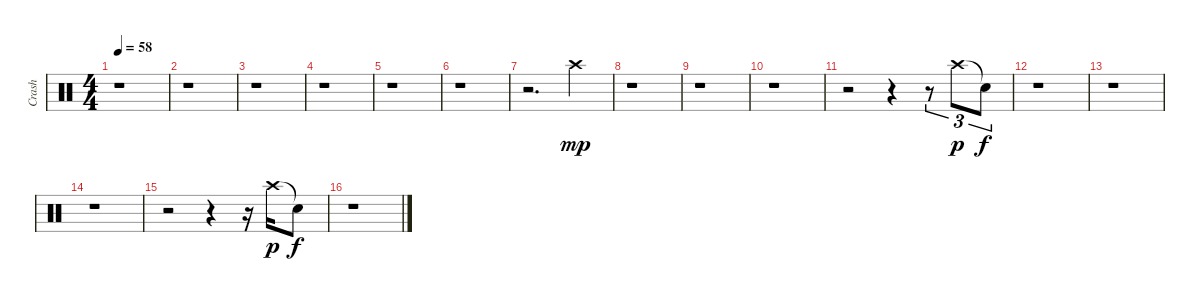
\track ("Crash" "Crash") {instrument percussion}
\staff {score}
\articulation defaults
\ts (4 4)
\tempo 58
\clef neutral
\ks c
r.1{dy mp} |
r.1 |
r.1 |
r.1 |
r.1 |
r.1 |
r.2{d} "Crash high (hit)".4 |
r.1 |
r.1 |
r.1 |
r.2 r.4 r.8{tu (3 2)} "Crash high (hit)".8{tu (3 2) dy p} "Snare (hit)"{t}.8{tu (3 2) dy f} |
r.1 |
r.1 |
r.1 |
r.2 r.4 r.16 "Crash high (hit)".16{dy p} "Snare (hit)"{t}.8{dy f} |
r.1
